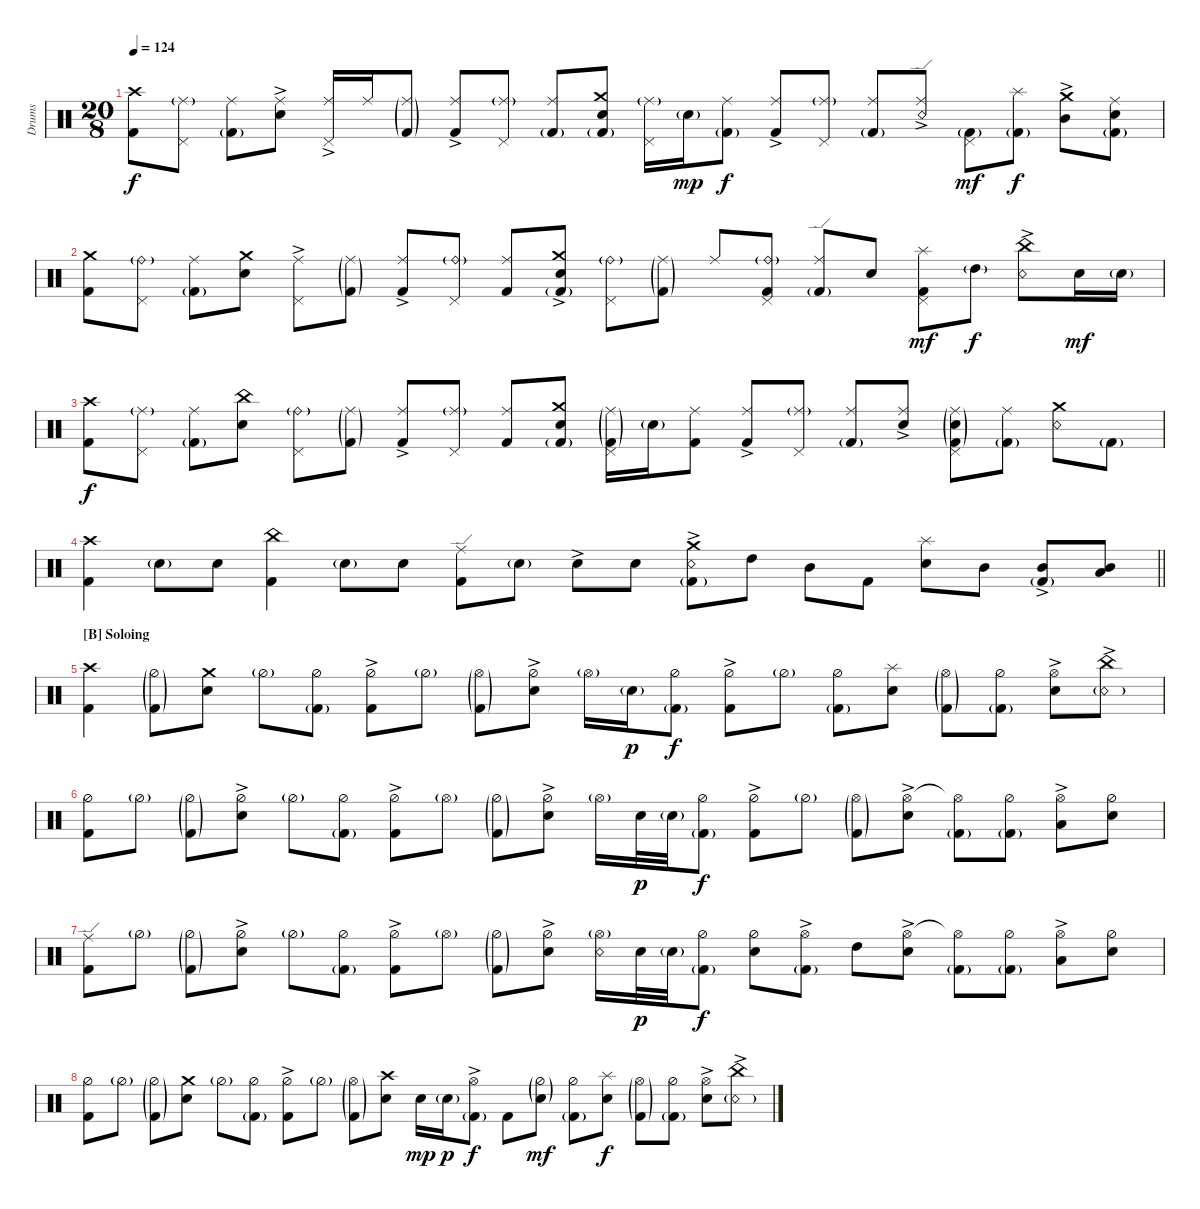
\bracketExtendMode groupsimilarinstruments
\otherSystemsTrackNameOrientation horizontal
\track ("Drumkit" "Drums") {instrument percussion}
\staff {score}
\articulation defaults
\ts (20 8)
\tempo 124
\clef neutral
\ks c
("Kick (hit) 2" "Crash high (hit)").8{dy f beam Down} ("Ride (middle)"{g} "Pedal Hi-Hat (hit)").8{beam Down} ("Ride (middle)" "Kick (hit) 2"{g}).8{beam Down} ("Ride (middle)"{ac} "Snare (hit) 2").8{beam Up} ("Ride (middle)"{ac} "Pedal Hi-Hat (hit)").16{beam Up} "Ride (middle)".16{beam Up} ("Ride (middle)"{g} "Kick (hit) 2"{g}).8{beam Up} ("Ride (middle)"{ac} "Kick (hit) 2").8{beam Up} ("Ride (middle)"{g} "Pedal Hi-Hat (hit)").8{beam Up} ("Ride (middle)" "Kick (hit) 2"{g}).8{beam Up} ("Snare (hit) 2" "Crash medium (hit)" "Kick (hit) 2"{g}).8{beam Down} ("Ride (middle)"{g} "Pedal Hi-Hat (hit)").16{beam Down} "Snare (hit) 2"{g}.16{dy mp beam Down} ("Ride (middle)" "Kick (hit) 2"{g}).8{dy f beam Down} ("Kick (hit) 2" "Ride (middle)"{ac}).8{beam Up} ("Ride (middle)"{g} "Pedal Hi-Hat (hit)").8{beam Up} ("Ride (middle)" "Kick (hit) 2"{g}).8{beam Up} ("Ride (edge)"{ac} "Snare (rim shot)").8{beam Down} ("Kick (hit) 2"{g} "Pedal Hi-Hat (hit)").8{dy mf beam Down} ("Kick (hit) 2"{g} "Splash (hit)").8{dy f beam Down} ("Mid Tom (hit)"{ac} "Crash medium (hit)").8{beam Down} ("Kick (hit) 2"{g} "Snare (hit) 2" "Ride (middle)").8{beam Down} |
("Kick (hit) 2" "Crash medium (hit)").8{beam Down} ("Ride (bell)"{g} "Pedal Hi-Hat (hit)").8{beam Down} ("Ride (middle)" "Kick (hit) 2"{g}).8{beam Down} ("Snare (hit) 2" "Crash medium (hit)").8{beam Down} ("Ride (middle)"{ac} "Pedal Hi-Hat (hit)").8{beam Down} ("Ride (middle)"{g} "Kick (hit) 2"{g}).8{beam Down} ("Ride (middle)"{ac} "Kick (hit) 2").8{beam Up} ("Ride (bell)"{g} "Pedal Hi-Hat (hit)").8{beam Up} ("Ride (middle)" "Kick (hit) 2").8{beam Up} ("Snare (hit) 2" "Crash medium (hit)"{ac} "Kick (hit) 2"{g}).8{beam Down} ("Ride (bell)"{g} "Pedal Hi-Hat (hit)").8{beam Down} ("Ride (middle)"{g} "Kick (hit) 2"{g}).8{beam Down} "Ride (middle)".8{beam Up} ("Ride (bell)"{g} "Kick (hit) 2" "Pedal Hi-Hat (hit)").8{beam Up} ("Kick (hit) 2"{g} "Ride (edge)").8{beam Up} "Snare (hit) 2".8{beam Down} ("Kick (hit) 2" "Splash (hit)" "Pedal Hi-Hat (hit)").8{dy mf beam Down} "High Tom (hit)"{g}.8{dy f beam Down} ("Snare (rim shot)" "China (hit)"{ac}).8{beam Down} "Snare (hit) 2".16{dy mf beam Down} "Snare (hit) 2"{g}.16{beam Down} |
("Kick (hit) 2" "Crash high (hit)").8{dy f beam Down} ("Ride (middle)"{g} "Pedal Hi-Hat (hit)").8{beam Down} ("Ride (middle)" "Kick (hit) 2"{g}).8{beam Down} ("Snare (hit) 2" "China (hit)").8{beam Down} ("Ride (bell)"{g} "Pedal Hi-Hat (hit)").8{beam Down} ("Ride (middle)"{g} "Kick (hit) 2"{g}).8{beam Down} ("Ride (middle)"{ac} "Kick (hit) 2").8{beam Up} ("Ride (middle)"{g} "Pedal Hi-Hat (hit)").8{beam Up} ("Ride (middle)" "Kick (hit) 2").8{beam Up} ("Snare (hit) 2" "Crash medium (hit)" "Kick (hit) 2"{g}).8{beam Down} ("Kick (hit) 2"{g} "Pedal Hi-Hat (hit)" "Ride (middle)"{g}).16{beam Down} "Snare (hit) 2"{g}.16{beam Down} ("Ride (middle)" "Kick (hit) 2").8{beam Down} ("Kick (hit) 2" "Ride (middle)"{ac}).8{beam Up} ("Ride (middle)"{g} "Pedal Hi-Hat (hit)").8{beam Up} ("Ride (middle)" "Kick (hit) 2"{g}).8{beam Up} ("Ride (middle)"{ac} "Snare (hit) 2").8{beam Down} ("Ride (middle)"{g} "Snare (hit) 2"{g} "Kick (hit) 2"{g} "Pedal Hi-Hat (hit)").8{beam Down} ("Ride (middle)" "Kick (hit) 2"{g}).8{beam Down} ("Snare (rim shot)" "Crash medium (hit)").8{beam Down} "Kick (hit) 2"{g}.8{beam Down} |
\barLineRight lightlight
("Kick (hit) 2" "Crash high (hit)").4{beam Down} "Snare (hit) 2"{g}.8{beam Down} "Snare (hit) 2".8{beam Down} ("Kick (hit) 2" "China (hit)").4{beam Down} "Snare (hit) 2"{g}.8{beam Down} "Snare (hit) 2".8{beam Down} ("Kick (hit) 2" "Ride (edge)").8{beam Down} "Snare (hit) 2"{g}.8{beam Down} "Snare (hit) 2"{ac}.8{beam Down} "Snare (hit) 2".8{beam Down} ("Kick (hit) 2"{g} "Crash medium (hit)"{ac} "Snare (rim shot)").8{beam Down} "High Tom (hit)".8{beam Down} "Mid Tom (hit)".8{beam Down} "Kick (hit) 2".8{beam Down} ("Splash (hit)" "Snare (hit) 2").8{beam Down} "Mid Tom (hit)".8{beam Down} ("Mid Tom (hit)"{ac} "Kick (hit) 2"{g}).8{beam Up} ("Mid Tom (hit)" "Low Tom (hit)").8{beam Up} |
\section ("B" "Soloing ")
("Kick (hit) 2" "Crash high (hit)").4{beam Down} ("Kick (hit) 2"{g} "Hi-Hat (half)"{g}).8{beam Down} ("Snare (hit) 2" "Crash medium (hit)").8{beam Down} "Hi-Hat (half)"{g}.8{beam Down} ("Kick (hit) 2"{g} "Hi-Hat (half)").8{beam Down} ("Kick (hit) 2" "Hi-Hat (half)"{ac}).8{beam Down} "Hi-Hat (half)"{g}.8{beam Down} ("Kick (hit) 2"{g} "Hi-Hat (open)"{g}).8{beam Down} ("Snare (hit) 2" "Hi-Hat (half)"{ac}).8{beam Down} "Hi-Hat (open)"{g}.16{beam Down} "Snare (hit) 2"{g}.16{dy p beam Down} ("Kick (hit) 2"{g} "Hi-Hat (half)").8{dy f beam Down} ("Kick (hit) 2" "Hi-Hat (half)"{ac}).8{beam Down} "Hi-Hat (half)"{g}.8{beam Down} ("Kick (hit) 2"{g} "Hi-Hat (half)").8{beam Down} ("Snare (hit) 2" "Splash (hit)").8{beam Down} ("Kick (hit) 2"{g} "Hi-Hat (open)"{g}).8{beam Down} ("Kick (hit) 2"{g} "Hi-Hat (half)").8{beam Down} ("Snare (hit) 2" "Hi-Hat (open)"{ac}).8{beam Down} ("Snare (rim shot)"{g} "China (hit)"{ac}).8{beam Down} |
("Kick (hit) 2" "Hi-Hat (half)").8{beam Down} "Hi-Hat (half)"{g}.8{beam Down} ("Kick (hit) 2"{g} "Hi-Hat (half)"{g}).8{beam Down} ("Snare (hit) 2" "Hi-Hat (half)"{ac}).8{beam Down} "Hi-Hat (half)"{g}.8{beam Down} ("Kick (hit) 2"{g} "Hi-Hat (half)").8{beam Down} ("Kick (hit) 2" "Hi-Hat (half)"{ac}).8{beam Down} "Hi-Hat (open)"{g}.8{beam Down} ("Kick (hit) 2"{g} "Hi-Hat (half)"{g}).8{beam Down} ("Snare (hit) 2" "Hi-Hat (half)"{ac}).8{beam Down} "Hi-Hat (open)"{g}.16{beam Down} "Snare (hit) 2".32{dy p beam Down} "Snare (hit) 2"{g}.32{beam Down} ("Kick (hit) 2"{g} "Hi-Hat (half)").8{dy f beam Down} ("Kick (hit) 2" "Hi-Hat (half)"{ac}).8{beam Down} "Hi-Hat (half)"{g}.8{beam Down} ("Kick (hit) 2"{g} "Hi-Hat (open)"{g}).8{beam Down} ("Snare (hit) 2" "Hi-Hat (open)"{ac}).8{beam Down} ("Kick (hit) 2"{g} "Hi-Hat (open)"{t}).8{beam Down} ("Hi-Hat (half)" "Kick (hit) 2"{g}).8{beam Down} ("Low Tom (hit)"{ac} "Hi-Hat (open)").8{beam Down} ("Snare (hit) 2" "Hi-Hat (half)").8{beam Down} |
("Kick (hit) 2" "Ride (edge)").8{beam Down} "Hi-Hat (half)"{g}.8{beam Down} ("Kick (hit) 2"{g} "Hi-Hat (half)"{g}).8{beam Down} ("Snare (hit) 2" "Hi-Hat (half)"{ac}).8{beam Down} "Hi-Hat (half)"{g}.8{beam Down} ("Kick (hit) 2"{g} "Hi-Hat (half)").8{beam Down} ("Kick (hit) 2" "Hi-Hat (half)"{ac}).8{beam Down} "Hi-Hat (open)"{g}.8{beam Down} ("Kick (hit) 2"{g} "Hi-Hat (half)"{g}).8{beam Down} ("Snare (hit) 2" "Hi-Hat (half)"{ac}).8{beam Down} ("Hi-Hat (open)"{g} "Snare (rim shot)").16{beam Down} "Snare (hit) 2".32{dy p beam Down} "Snare (hit) 2"{g}.32{beam Down} ("Kick (hit) 2"{g} "Hi-Hat (half)").8{dy f beam Down} ("Hi-Hat (half)" "Snare (hit) 2").8{beam Down} ("Hi-Hat (open)"{ac} "Kick (hit) 2"{g}).8{beam Down} "High Tom (hit)".8{beam Down} ("Snare (hit) 2" "Hi-Hat (open)"{ac}).8{beam Down} ("Kick (hit) 2"{g} "Hi-Hat (open)"{t}).8{beam Down} ("Hi-Hat (half)" "Kick (hit) 2"{g}).8{beam Down} ("Low Tom (hit)"{ac} "Hi-Hat (open)").8{beam Down} ("Snare (hit) 2" "Hi-Hat (half)").8{beam Down} |
("Kick (hit) 2" "Hi-Hat (half)").8{beam Down} "Hi-Hat (half)"{g}.8{beam Down} ("Kick (hit) 2"{g} "Hi-Hat (half)"{g}).8{beam Down} ("Snare (hit) 2" "Crash medium (hit)").8{beam Down} "Hi-Hat (half)"{g}.8{beam Down} ("Kick (hit) 2"{g} "Hi-Hat (half)").8{beam Down} ("Kick (hit) 2" "Hi-Hat (half)"{ac}).8{beam Down} "Hi-Hat (half)"{g}.8{beam Down} ("Kick (hit) 2"{g} "Hi-Hat (open)"{g}).8{beam Down} ("Snare (hit) 2" "Crash high (hit)").8{beam Down} "Snare (hit) 2".16{dy mp beam Down} "Snare (hit) 2"{g}.16{dy p beam Down} ("Kick (hit) 2"{g} "Hi-Hat (open)"{ac}).8{dy f beam Down} "Kick (hit) 2".8{beam Down} ("Hi-Hat (half)"{g} "Snare (hit) 2"{g}).8{dy mf beam Down} ("Kick (hit) 2"{g} "Hi-Hat (half)").8{beam Down} ("Snare (hit) 2" "Splash (hit)").8{dy f beam Down} ("Kick (hit) 2"{g} "Hi-Hat (open)"{g}).8{beam Down} ("Kick (hit) 2"{g} "Hi-Hat (half)").8{beam Down} ("Snare (hit) 2" "Hi-Hat (open)"{ac}).8{beam Down} ("Snare (rim shot)"{g} "China (hit)"{ac}).8{beam Down}
